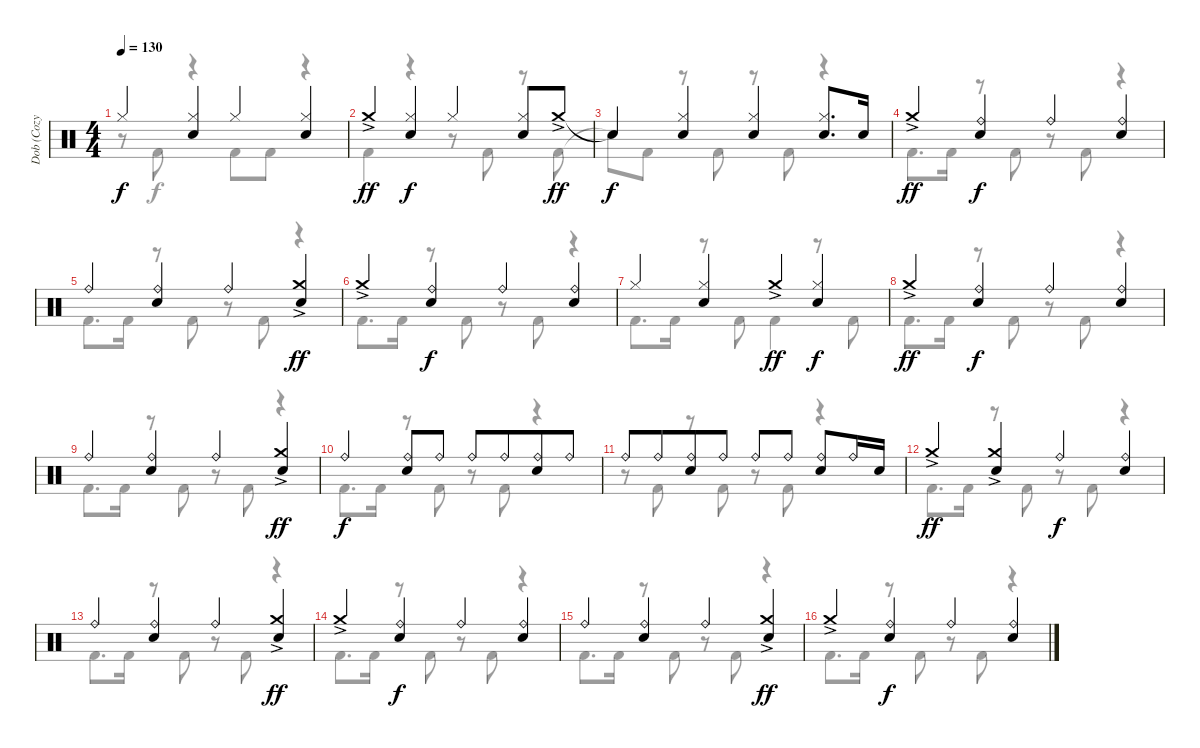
\track ("Dob (Cozy Powell)" "Dob (Cozy ") {instrument percussion}
\staff {score}
\articulation defaults
\voice
\ts (4 4)
\tempo 130
\clef neutral
\ks c "Hi-Hat (closed)".4{dy f}
("Hi-Hat (closed)" "Electric Snare (hit)").4 "Hi-Hat (closed)".4 ("Hi-Hat (closed)" "Electric Snare (hit)").4 |
"Crash medium (hit)"{ac}.4{dy ff} ("Hi-Hat (closed)" "Electric Snare (hit)").4{dy f} "Hi-Hat (closed)".4 ("Hi-Hat (closed)" "Electric Snare (hit)").8 "Crash medium (hit)"{ac}.8{dy ff} |
"Snare (hit)"{t}.4{dy f} ("Hi-Hat (closed)" "Electric Snare (hit)").4 ("Hi-Hat (closed)" "Electric Snare (hit)").4 ("Hi-Hat (closed)" "Electric Snare (hit)").8{d} "Electric Snare (hit)".16 |
"Crash medium (hit)"{ac}.4{dy ff} ("Ride (bell)" "Electric Snare (hit)").4{dy f} "Ride (bell)".4 ("Ride (bell)" "Electric Snare (hit)").4 |
"Ride (bell)".4 ("Ride (bell)" "Electric Snare (hit)").4 "Ride (bell)".4 ("Crash medium (hit)"{ac} "Electric Snare (hit)").4{dy ff} |
"Crash medium (hit)"{ac}.4 ("Ride (bell)" "Electric Snare (hit)").4{dy f} "Ride (bell)".4 ("Ride (bell)" "Electric Snare (hit)").4 |
"Hi-Hat (closed)".4 ("Hi-Hat (closed)" "Electric Snare (hit)").4 "Crash medium (hit)"{ac}.4{dy ff} ("Hi-Hat (closed)" "Electric Snare (hit)").4{dy f} |
"Crash medium (hit)"{ac}.4{dy ff} ("Ride (bell)" "Electric Snare (hit)").4{dy f} "Ride (bell)".4 ("Ride (bell)" "Electric Snare (hit)").4 |
"Ride (bell)".4 ("Ride (bell)" "Electric Snare (hit)").4 "Ride (bell)".4 ("Crash medium (hit)"{ac} "Electric Snare (hit)").4{dy ff} |
"Ride (bell)".4{dy f} ("Ride (bell)" "Electric Snare (hit)").8 "Ride (bell)".8 "Ride (bell)".8 "Ride (bell)".8{beam merge} ("Ride (bell)" "Electric Snare (hit)").8 "Ride (bell)".8 |
"Ride (bell)".8 "Ride (bell)".8{beam merge} ("Ride (bell)" "Electric Snare (hit)").8 "Ride (bell)".8 "Ride (bell)".8 "Ride (bell)".8 ("Ride (bell)" "Electric Snare (hit)").8 "Ride (bell)".16 "Electric Snare (hit)".16 |
"Crash medium (hit)"{ac}.4{dy ff} ("Crash medium (hit)"{ac} "Electric Snare (hit)").4 "Ride (bell)".4{dy f} ("Ride (bell)" "Electric Snare (hit)").4 |
"Ride (bell)".4 ("Ride (bell)" "Electric Snare (hit)").4 "Ride (bell)".4 ("Crash medium (hit)"{ac} "Electric Snare (hit)").4{dy ff} |
"Crash medium (hit)"{ac}.4 ("Ride (bell)" "Electric Snare (hit)").4{dy f} "Ride (bell)".4 ("Ride (bell)" "Electric Snare (hit)").4 |
"Ride (bell)".4 ("Ride (bell)" "Electric Snare (hit)").4 "Ride (bell)".4 ("Crash medium (hit)"{ac} "Electric Snare (hit)").4{dy ff} |
"Crash medium (hit)"{ac}.4 ("Ride (bell)" "Electric Snare (hit)").4{dy f} "Ride (bell)".4 ("Ride (bell)" "Electric Snare (hit)").4
\voice
\clef neutral
\ottava regular
\simile none
\ks c
r.8{dy f} "Kick (hit) 2".8 r.4 "Kick (hit) 2".8 "Kick (hit) 2".8 r.4 |
"Kick (hit) 2".4 r.4 r.8 "Kick (hit) 2".8 r.8 "Kick (hit) 2".8 |
"Snare (hit)"{t}.8 "Kick (hit) 2".8 r.8 "Kick (hit) 2".8 r.8 "Kick (hit) 2".8 r.4 |
"Kick (hit) 2".8{d} "Kick (hit) 2".16 r.8 "Kick (hit) 2".8 r.8 "Kick (hit) 2".8 r.4 |
"Kick (hit) 2".8{d} "Kick (hit) 2".16 r.8 "Kick (hit) 2".8 r.8 "Kick (hit) 2".8 r.4 |
"Kick (hit) 2".8{d} "Kick (hit) 2".16 r.8 "Kick (hit) 2".8 r.8 "Kick (hit) 2".8 r.4 |
"Kick (hit) 2".8{d} "Kick (hit) 2".16 r.8 "Kick (hit) 2".8 "Kick (hit) 2".4 r.8 "Kick (hit) 2".8 |
"Kick (hit) 2".8{d} "Kick (hit) 2".16 r.8 "Kick (hit) 2".8 r.8 "Kick (hit) 2".8 r.4 |
"Kick (hit) 2".8{d} "Kick (hit) 2".16 r.8 "Kick (hit) 2".8 r.8 "Kick (hit) 2".8 r.4 |
"Kick (hit) 2".8{d} "Kick (hit) 2".16 r.8 "Kick (hit) 2".8 r.8 "Kick (hit) 2".8 r.4 |
r.8 "Kick (hit) 2".8 r.8 "Kick (hit) 2".8 r.8 "Kick (hit) 2".8 r.4 |
"Kick (hit) 2".8{d} "Kick (hit) 2".16 r.8 "Kick (hit) 2".8 r.8 "Kick (hit) 2".8 r.4 |
"Kick (hit) 2".8{d} "Kick (hit) 2".16 r.8 "Kick (hit) 2".8 r.8 "Kick (hit) 2".8 r.4 |
"Kick (hit) 2".8{d} "Kick (hit) 2".16 r.8 "Kick (hit) 2".8 r.8 "Kick (hit) 2".8 r.4 |
"Kick (hit) 2".8{d} "Kick (hit) 2".16 r.8 "Kick (hit) 2".8 r.8 "Kick (hit) 2".8 r.4 |
"Kick (hit) 2".8{d} "Kick (hit) 2".16 r.8 "Kick (hit) 2".8 r.8 "Kick (hit) 2".8 r.4
